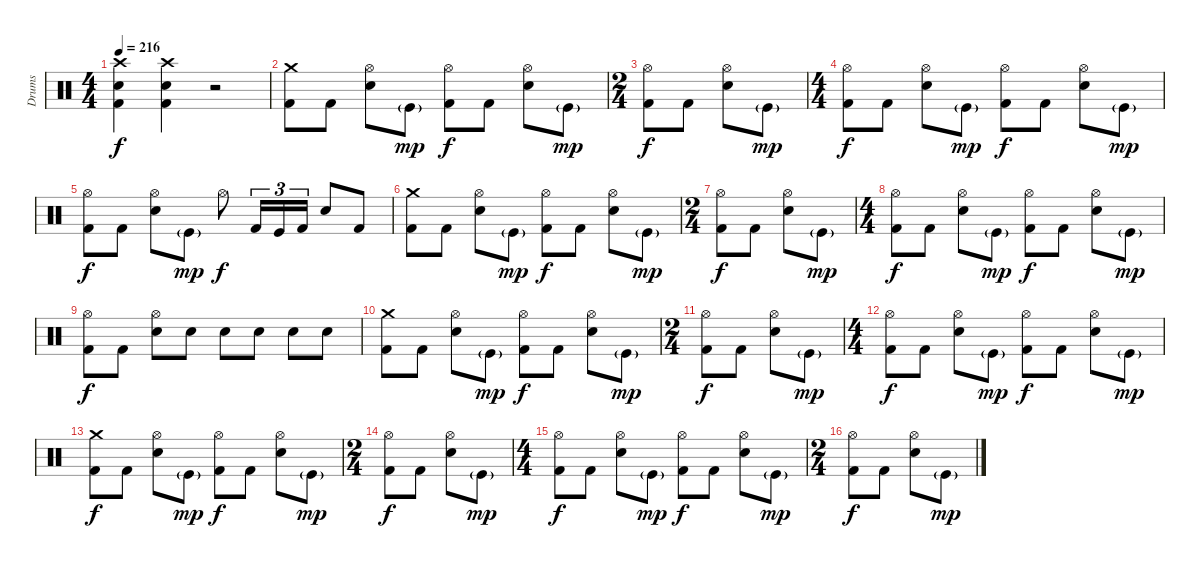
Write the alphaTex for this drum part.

\track ("Drums" "Drums") {instrument percussion}
\staff {score}
\articulation defaults
\ts (4 4)
\tempo 216
\clef neutral
\ks c
("Crash high (hit)" "Snare (hit) 2" "Kick (hit) 2").4{dy f} ("Crash high (hit)" "Snare (hit) 2" "Kick (hit) 2").4 r.2 |
("Crash medium (hit)" "Kick (hit) 2").8 "Kick (hit) 2".8 ("Hi-Hat (open)" "Snare (hit) 2").8 "Kick (hit)"{g}.8{dy mp} ("Hi-Hat (open)" "Kick (hit) 2").8{dy f} "Kick (hit) 2".8 ("Hi-Hat (open)" "Snare (hit) 2").8 "Kick (hit)"{g}.8{dy mp} |
\ts (2 4)
("Hi-Hat (open)" "Kick (hit) 2").8{dy f} "Kick (hit) 2".8 ("Hi-Hat (open)" "Snare (hit) 2").8 "Kick (hit)"{g}.8{dy mp} |
\ts (4 4)
("Hi-Hat (open)" "Kick (hit) 2").8{dy f} "Kick (hit) 2".8 ("Hi-Hat (open)" "Snare (hit) 2").8 "Kick (hit)"{g}.8{dy mp} ("Hi-Hat (open)" "Kick (hit) 2").8{dy f} "Kick (hit) 2".8 ("Hi-Hat (open)" "Snare (hit) 2").8 "Kick (hit)"{g}.8{dy mp} |
("Hi-Hat (open)" "Kick (hit) 2").8{dy f} "Kick (hit) 2".8 ("Hi-Hat (open)" "Snare (hit) 2").8 "Kick (hit)"{g}.8{dy mp} "Hi-Hat (open)".8{dy f} "Kick (hit) 2".16{tu (3 2)} "Kick (hit)".16{tu (3 2)} "Kick (hit) 2".16{tu (3 2)} "Snare (hit) 2".8 "Kick (hit) 2".8 |
("Crash medium (hit)" "Kick (hit) 2").8 "Kick (hit) 2".8 ("Hi-Hat (open)" "Snare (hit) 2").8 "Kick (hit)"{g}.8{dy mp} ("Hi-Hat (open)" "Kick (hit) 2").8{dy f} "Kick (hit) 2".8 ("Hi-Hat (open)" "Snare (hit) 2").8 "Kick (hit)"{g}.8{dy mp} |
\ts (2 4)
("Hi-Hat (open)" "Kick (hit) 2").8{dy f} "Kick (hit) 2".8 ("Hi-Hat (open)" "Snare (hit) 2").8 "Kick (hit)"{g}.8{dy mp} |
\ts (4 4)
("Hi-Hat (open)" "Kick (hit) 2").8{dy f} "Kick (hit) 2".8 ("Hi-Hat (open)" "Snare (hit) 2").8 "Kick (hit)"{g}.8{dy mp} ("Hi-Hat (open)" "Kick (hit) 2").8{dy f} "Kick (hit) 2".8 ("Hi-Hat (open)" "Snare (hit) 2").8 "Kick (hit)"{g}.8{dy mp} |
("Hi-Hat (open)" "Kick (hit) 2").8{dy f} "Kick (hit) 2".8 ("Hi-Hat (open)" "Electric Snare (hit)").8 "Electric Snare (hit)".8 "Electric Snare (hit)".8 "Electric Snare (hit)".8 "Electric Snare (hit)".8 "Electric Snare (hit)".8 |
("Crash medium (hit)" "Kick (hit) 2").8 "Kick (hit) 2".8 ("Hi-Hat (open)" "Snare (hit) 2").8 "Kick (hit)"{g}.8{dy mp} ("Hi-Hat (open)" "Kick (hit) 2").8{dy f} "Kick (hit) 2".8 ("Hi-Hat (open)" "Snare (hit) 2").8 "Kick (hit)"{g}.8{dy mp} |
\ts (2 4)
("Hi-Hat (open)" "Kick (hit) 2").8{dy f} "Kick (hit) 2".8 ("Hi-Hat (open)" "Snare (hit) 2").8 "Kick (hit)"{g}.8{dy mp} |
\ts (4 4)
("Hi-Hat (open)" "Kick (hit) 2").8{dy f} "Kick (hit) 2".8 ("Hi-Hat (open)" "Snare (hit) 2").8 "Kick (hit)"{g}.8{dy mp} ("Hi-Hat (open)" "Kick (hit) 2").8{dy f} "Kick (hit) 2".8 ("Hi-Hat (open)" "Snare (hit) 2").8 "Kick (hit)"{g}.8{dy mp} |
("Crash medium (hit)" "Kick (hit) 2").8{dy f} "Kick (hit) 2".8 ("Hi-Hat (open)" "Snare (hit) 2").8 "Kick (hit)"{g}.8{dy mp} ("Hi-Hat (open)" "Kick (hit) 2").8{dy f} "Kick (hit) 2".8 ("Hi-Hat (open)" "Snare (hit) 2").8 "Kick (hit)"{g}.8{dy mp} |
\ts (2 4)
("Hi-Hat (open)" "Kick (hit) 2").8{dy f} "Kick (hit) 2".8 ("Hi-Hat (open)" "Snare (hit) 2").8 "Kick (hit)"{g}.8{dy mp} |
\ts (4 4)
("Hi-Hat (open)" "Kick (hit) 2").8{dy f} "Kick (hit) 2".8 ("Hi-Hat (open)" "Snare (hit) 2").8 "Kick (hit)"{g}.8{dy mp} ("Hi-Hat (open)" "Kick (hit) 2").8{dy f} "Kick (hit) 2".8 ("Hi-Hat (open)" "Snare (hit) 2").8 "Kick (hit)"{g}.8{dy mp} |
\ts (2 4)
("Hi-Hat (open)" "Kick (hit) 2").8{dy f} "Kick (hit) 2".8 ("Hi-Hat (open)" "Snare (hit) 2").8 "Kick (hit)"{g}.8{dy mp}
